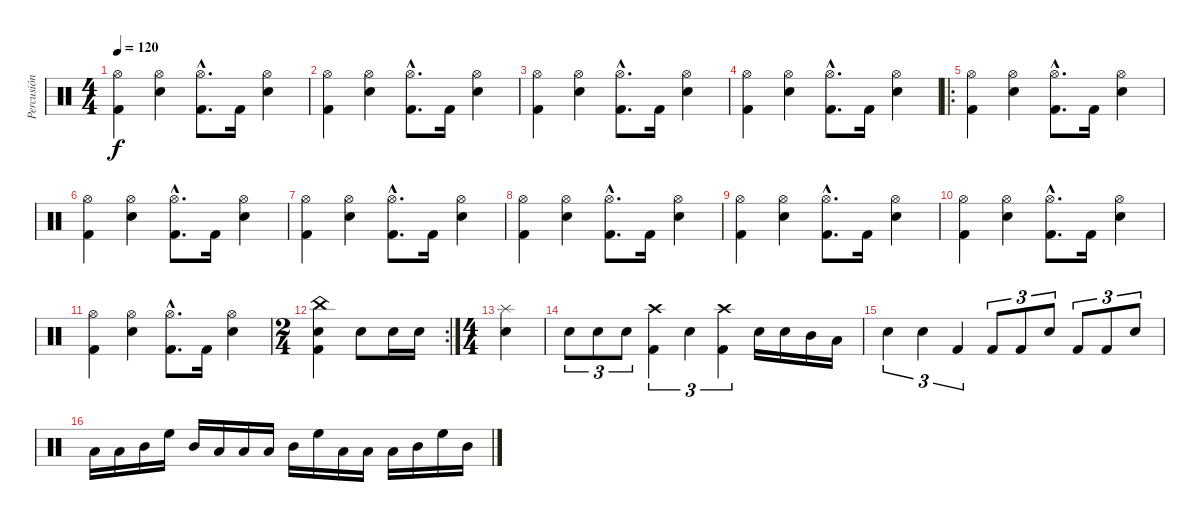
\track ("Percusión" "Percusión") {instrument percussion}
\staff {score}
\articulation defaults
\ts (4 4)
\tempo 120
\clef neutral
\ks c
("Hi-Hat (open)" "Kick (hit) 2").4{dy f} ("Hi-Hat (open)" "Electric Snare (hit)").4 ("Hi-Hat (open)"{hac} "Kick (hit) 2"{hac}).8{d} "Kick (hit) 2".16 ("Hi-Hat (open)" "Electric Snare (hit)").4 |
("Hi-Hat (open)" "Kick (hit) 2").4 ("Hi-Hat (open)" "Electric Snare (hit)").4 ("Hi-Hat (open)"{hac} "Kick (hit) 2"{hac}).8{d} "Kick (hit) 2".16 ("Hi-Hat (open)" "Electric Snare (hit)").4 |
("Hi-Hat (open)" "Kick (hit) 2").4 ("Hi-Hat (open)" "Electric Snare (hit)").4 ("Hi-Hat (open)"{hac} "Kick (hit) 2"{hac}).8{d} "Kick (hit) 2".16 ("Hi-Hat (open)" "Electric Snare (hit)").4 |
("Hi-Hat (open)" "Kick (hit) 2").4 ("Hi-Hat (open)" "Electric Snare (hit)").4 ("Hi-Hat (open)"{hac} "Kick (hit) 2"{hac}).8{d} "Kick (hit) 2".16 ("Hi-Hat (open)" "Electric Snare (hit)").4 |
\ro
("Hi-Hat (open)" "Kick (hit) 2").4 ("Hi-Hat (open)" "Electric Snare (hit)").4 ("Hi-Hat (open)"{hac} "Kick (hit) 2"{hac}).8{d} "Kick (hit) 2".16 ("Hi-Hat (open)" "Electric Snare (hit)").4 |
("Hi-Hat (open)" "Kick (hit) 2").4 ("Hi-Hat (open)" "Electric Snare (hit)").4 ("Hi-Hat (open)"{hac} "Kick (hit) 2"{hac}).8{d} "Kick (hit) 2".16 ("Hi-Hat (open)" "Electric Snare (hit)").4 |
("Hi-Hat (open)" "Kick (hit) 2").4 ("Hi-Hat (open)" "Electric Snare (hit)").4 ("Hi-Hat (open)"{hac} "Kick (hit) 2"{hac}).8{d} "Kick (hit) 2".16 ("Hi-Hat (open)" "Electric Snare (hit)").4 |
("Hi-Hat (open)" "Kick (hit) 2").4 ("Hi-Hat (open)" "Electric Snare (hit)").4 ("Hi-Hat (open)"{hac} "Kick (hit) 2"{hac}).8{d} "Kick (hit) 2".16 ("Hi-Hat (open)" "Electric Snare (hit)").4 |
("Hi-Hat (open)" "Kick (hit) 2").4 ("Hi-Hat (open)" "Electric Snare (hit)").4 ("Hi-Hat (open)"{hac} "Kick (hit) 2"{hac}).8{d} "Kick (hit) 2".16 ("Hi-Hat (open)" "Electric Snare (hit)").4 |
("Hi-Hat (open)" "Kick (hit) 2").4 ("Hi-Hat (open)" "Electric Snare (hit)").4 ("Hi-Hat (open)"{hac} "Kick (hit) 2"{hac}).8{d} "Kick (hit) 2".16 ("Hi-Hat (open)" "Electric Snare (hit)").4 |
("Hi-Hat (open)" "Kick (hit) 2").4 ("Hi-Hat (open)" "Electric Snare (hit)").4 ("Hi-Hat (open)"{hac} "Kick (hit) 2"{hac}).8{d} "Kick (hit) 2".16 ("Hi-Hat (open)" "Electric Snare (hit)").4 |
\rc 2
\ts (2 4)
("China (hit)" "Electric Snare (hit)" "Kick (hit) 2").4 "Electric Snare (hit)".8 "Electric Snare (hit)".16 "Electric Snare (hit)".16 |
\ts (4 4)
("Splash (hit)" "Electric Snare (hit)").4 |
"Electric Snare (hit)".8{tu (3 2)} "Electric Snare (hit)".8{tu (3 2)} "Electric Snare (hit)".8{tu (3 2)} ("Crash high (hit)" "Kick (hit) 2").4{tu (3 2)} "Electric Snare (hit)".4{tu (3 2)} ("Crash high (hit)" "Kick (hit) 2").4{tu (3 2)} "Electric Snare (hit)".16 "Electric Snare (hit)".16 "Mid Tom (hit)".16 "Low Tom (hit)".16 |
"Electric Snare (hit)".4{tu (3 2)} "Electric Snare (hit)".4{tu (3 2)} "Kick (hit) 2".4{tu (3 2)} "Kick (hit) 2".8{tu (3 2)} "Kick (hit) 2".8{tu (3 2)} "Electric Snare (hit)".8{tu (3 2)} "Kick (hit) 2".8{tu (3 2)} "Kick (hit) 2".8{tu (3 2)} "Electric Snare (hit)".8{tu (3 2)} |
"Low Floor Tom (hit)".16 "Low Tom (hit)".16 "Mid Tom (hit)".16 "High Floor Tom (hit)".16 "Mid Tom (hit)".16 "Low Tom (hit)".16 "Low Floor Tom (hit)".16 "Low Tom (hit)".16 "Mid Tom (hit)".16 "High Floor Tom (hit)".16 "Low Tom (hit)".16 "Low Floor Tom (hit)".16 "Low Tom (hit)".16 "Mid Tom (hit)".16 "High Floor Tom (hit)".16 "Mid Tom (hit)".16
